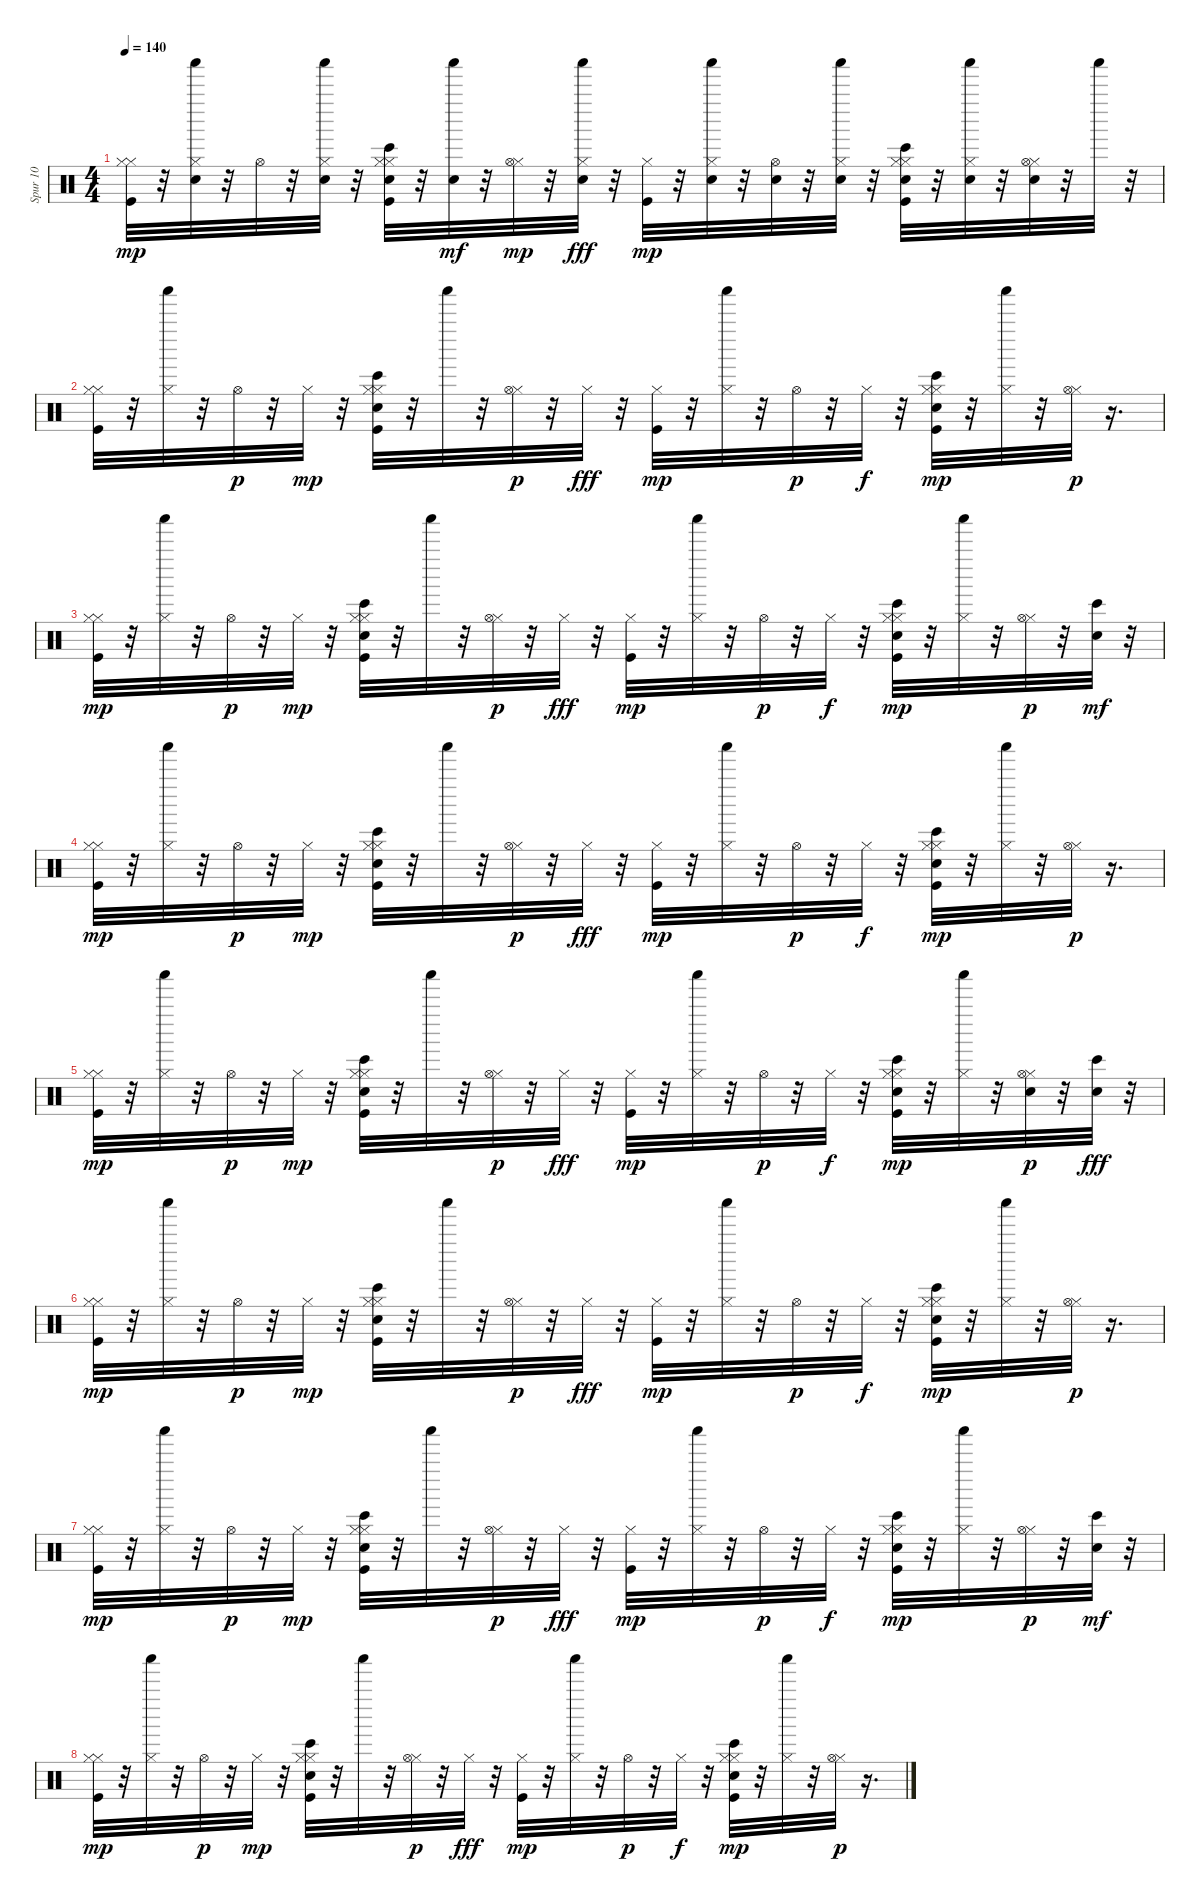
\track ("Spur 10" "Spur 10") {instrument percussion}
\staff {score}
\articulation defaults
\ts (4 4)
\tempo 140
\clef neutral
\ks c
("Hi-Hat (closed)" "Kick (hit)" "Hi-Hat (closed)").32{dy mp} r.32 ("Snare (hit) 2" "Hi-Hat (closed)" "Shaker (hit)").32 r.32 "Hi-Hat (open)".32 r.32 ("Shaker (hit)" "Snare (hit) 2" "Hi-Hat (closed)").32 r.32 ("Electric Snare (hit)" "Hi-Hat (closed)" "Kick (hit)" "Bongo High (hit)" "Hi-Hat (closed)").32 r.32 ("Shaker (hit)" "Snare (hit) 2").32{dy mf} r.32 ("Hi-Hat (closed)" "Hi-Hat (open)").32{dy mp} r.32 ("Snare (hit) 2" "Shaker (hit)" "Hi-Hat (closed)").32{dy fff} r.32 ("Kick (hit)" "Hi-Hat (closed)").32{dy mp} r.32 ("Snare (hit) 2" "Hi-Hat (closed)" "Shaker (hit)").32 r.32 ("Snare (hit) 2" "Hi-Hat (open)").32 r.32 ("Snare (hit) 2" "Shaker (hit)" "Hi-Hat (closed)").32 r.32 ("Hi-Hat (closed)" "Kick (hit)" "Bongo High (hit)" "Electric Snare (hit)" "Hi-Hat (closed)").32 r.32 ("Snare (hit) 2" "Hi-Hat (closed)" "Shaker (hit)").32 r.32 ("Snare (hit) 2" "Hi-Hat (closed)" "Hi-Hat (open)").32 r.32 "Shaker (hit)".32 r.32 |
("Hi-Hat (closed)" "Kick (hit)" "Hi-Hat (closed)").32 r.32 ("Hi-Hat (closed)" "Shaker (hit)").32 r.32 "Hi-Hat (open)".32{dy p} r.32 "Hi-Hat (closed)".32{dy mp} r.32 ("Hi-Hat (closed)" "Kick (hit)" "Bongo High (hit)" "Electric Snare (hit)" "Hi-Hat (closed)").32 r.32 "Shaker (hit)".32 r.32 ("Hi-Hat (closed)" "Hi-Hat (open)").32{dy p} r.32 "Hi-Hat (closed)".32{dy fff} r.32 ("Kick (hit)" "Hi-Hat (closed)").32{dy mp} r.32 ("Hi-Hat (closed)" "Shaker (hit)").32 r.32 "Hi-Hat (open)".32{dy p} r.32 "Hi-Hat (closed)".32{dy f} r.32 ("Hi-Hat (closed)" "Kick (hit)" "Bongo High (hit)" "Electric Snare (hit)" "Hi-Hat (closed)").32{dy mp} r.32 ("Hi-Hat (closed)" "Shaker (hit)").32 r.32 ("Hi-Hat (closed)" "Hi-Hat (open)").32{dy p} r.16{d} |
("Hi-Hat (closed)" "Kick (hit)" "Hi-Hat (closed)").32{dy mp} r.32 ("Hi-Hat (closed)" "Shaker (hit)").32 r.32 "Hi-Hat (open)".32{dy p} r.32 "Hi-Hat (closed)".32{dy mp} r.32 ("Hi-Hat (closed)" "Kick (hit)" "Bongo High (hit)" "Electric Snare (hit)" "Hi-Hat (closed)").32 r.32 "Shaker (hit)".32 r.32 ("Hi-Hat (closed)" "Hi-Hat (open)").32{dy p} r.32 "Hi-Hat (closed)".32{dy fff} r.32 ("Kick (hit)" "Hi-Hat (closed)").32{dy mp} r.32 ("Hi-Hat (closed)" "Shaker (hit)").32 r.32 "Hi-Hat (open)".32{dy p} r.32 "Hi-Hat (closed)".32{dy f} r.32 ("Hi-Hat (closed)" "Kick (hit)" "Bongo High (hit)" "Electric Snare (hit)" "Hi-Hat (closed)").32{dy mp} r.32 ("Hi-Hat (closed)" "Shaker (hit)").32 r.32 ("Hi-Hat (closed)" "Hi-Hat (open)").32{dy p} r.32 ("Bongo High (hit)" "Electric Snare (hit)").32{dy mf} r.32 |
("Hi-Hat (closed)" "Kick (hit)" "Hi-Hat (closed)").32{dy mp} r.32 ("Hi-Hat (closed)" "Shaker (hit)").32 r.32 "Hi-Hat (open)".32{dy p} r.32 "Hi-Hat (closed)".32{dy mp} r.32 ("Hi-Hat (closed)" "Kick (hit)" "Bongo High (hit)" "Electric Snare (hit)" "Hi-Hat (closed)").32 r.32 "Shaker (hit)".32 r.32 ("Hi-Hat (closed)" "Hi-Hat (open)").32{dy p} r.32 "Hi-Hat (closed)".32{dy fff} r.32 ("Kick (hit)" "Hi-Hat (closed)").32{dy mp} r.32 ("Hi-Hat (closed)" "Shaker (hit)").32 r.32 "Hi-Hat (open)".32{dy p} r.32 "Hi-Hat (closed)".32{dy f} r.32 ("Hi-Hat (closed)" "Kick (hit)" "Bongo High (hit)" "Electric Snare (hit)" "Hi-Hat (closed)").32{dy mp} r.32 ("Hi-Hat (closed)" "Shaker (hit)").32 r.32 ("Hi-Hat (closed)" "Hi-Hat (open)").32{dy p} r.16{d} |
("Hi-Hat (closed)" "Kick (hit)" "Hi-Hat (closed)").32{dy mp} r.32 ("Hi-Hat (closed)" "Shaker (hit)").32 r.32 "Hi-Hat (open)".32{dy p} r.32 "Hi-Hat (closed)".32{dy mp} r.32 ("Hi-Hat (closed)" "Kick (hit)" "Bongo High (hit)" "Electric Snare (hit)" "Hi-Hat (closed)").32 r.32 "Shaker (hit)".32 r.32 ("Hi-Hat (closed)" "Hi-Hat (open)").32{dy p} r.32 "Hi-Hat (closed)".32{dy fff} r.32 ("Kick (hit)" "Hi-Hat (closed)").32{dy mp} r.32 ("Hi-Hat (closed)" "Shaker (hit)").32 r.32 "Hi-Hat (open)".32{dy p} r.32 "Hi-Hat (closed)".32{dy f} r.32 ("Hi-Hat (closed)" "Kick (hit)" "Bongo High (hit)" "Electric Snare (hit)" "Hi-Hat (closed)").32{dy mp} r.32 ("Hi-Hat (closed)" "Shaker (hit)").32 r.32 ("Electric Snare (hit)" "Hi-Hat (closed)" "Hi-Hat (open)").32{dy p} r.32 ("Bongo High (hit)" "Electric Snare (hit)").32{dy fff} r.32 |
("Hi-Hat (closed)" "Kick (hit)" "Hi-Hat (closed)").32{dy mp} r.32 ("Hi-Hat (closed)" "Shaker (hit)").32 r.32 "Hi-Hat (open)".32{dy p} r.32 "Hi-Hat (closed)".32{dy mp} r.32 ("Hi-Hat (closed)" "Kick (hit)" "Bongo High (hit)" "Electric Snare (hit)" "Hi-Hat (closed)").32 r.32 "Shaker (hit)".32 r.32 ("Hi-Hat (closed)" "Hi-Hat (open)").32{dy p} r.32 "Hi-Hat (closed)".32{dy fff} r.32 ("Kick (hit)" "Hi-Hat (closed)").32{dy mp} r.32 ("Hi-Hat (closed)" "Shaker (hit)").32 r.32 "Hi-Hat (open)".32{dy p} r.32 "Hi-Hat (closed)".32{dy f} r.32 ("Hi-Hat (closed)" "Kick (hit)" "Bongo High (hit)" "Electric Snare (hit)" "Hi-Hat (closed)").32{dy mp} r.32 ("Hi-Hat (closed)" "Shaker (hit)").32 r.32 ("Hi-Hat (closed)" "Hi-Hat (open)").32{dy p} r.16{d} |
("Hi-Hat (closed)" "Kick (hit)" "Hi-Hat (closed)").32{dy mp} r.32 ("Hi-Hat (closed)" "Shaker (hit)").32 r.32 "Hi-Hat (open)".32{dy p} r.32 "Hi-Hat (closed)".32{dy mp} r.32 ("Hi-Hat (closed)" "Kick (hit)" "Bongo High (hit)" "Electric Snare (hit)" "Hi-Hat (closed)").32 r.32 "Shaker (hit)".32 r.32 ("Hi-Hat (closed)" "Hi-Hat (open)").32{dy p} r.32 "Hi-Hat (closed)".32{dy fff} r.32 ("Kick (hit)" "Hi-Hat (closed)").32{dy mp} r.32 ("Hi-Hat (closed)" "Shaker (hit)").32 r.32 "Hi-Hat (open)".32{dy p} r.32 "Hi-Hat (closed)".32{dy f} r.32 ("Hi-Hat (closed)" "Kick (hit)" "Bongo High (hit)" "Electric Snare (hit)" "Hi-Hat (closed)").32{dy mp} r.32 ("Hi-Hat (closed)" "Shaker (hit)").32 r.32 ("Hi-Hat (closed)" "Hi-Hat (open)").32{dy p} r.32 ("Bongo High (hit)" "Electric Snare (hit)").32{dy mf} r.32 |
("Hi-Hat (closed)" "Kick (hit)" "Hi-Hat (closed)").32{dy mp} r.32 ("Hi-Hat (closed)" "Shaker (hit)").32 r.32 "Hi-Hat (open)".32{dy p} r.32 "Hi-Hat (closed)".32{dy mp} r.32 ("Hi-Hat (closed)" "Kick (hit)" "Bongo High (hit)" "Electric Snare (hit)" "Hi-Hat (closed)").32 r.32 "Shaker (hit)".32 r.32 ("Hi-Hat (closed)" "Hi-Hat (open)").32{dy p} r.32 "Hi-Hat (closed)".32{dy fff} r.32 ("Kick (hit)" "Hi-Hat (closed)").32{dy mp} r.32 ("Hi-Hat (closed)" "Shaker (hit)").32 r.32 "Hi-Hat (open)".32{dy p} r.32 "Hi-Hat (closed)".32{dy f} r.32 ("Hi-Hat (closed)" "Kick (hit)" "Bongo High (hit)" "Electric Snare (hit)" "Hi-Hat (closed)").32{dy mp} r.32 ("Hi-Hat (closed)" "Shaker (hit)").32 r.32 ("Hi-Hat (closed)" "Hi-Hat (open)").32{dy p} r.16{d}
